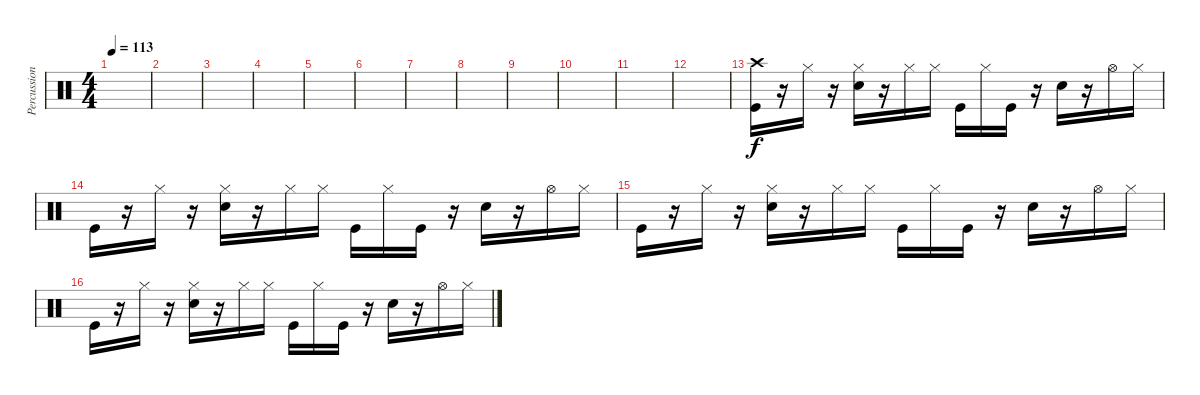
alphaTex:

\track ("Percussioni" "Percussion") {instrument percussion}
\staff {score}
\articulation defaults
\ts (4 4)
\tempo 113
\clef neutral
\ks c
|
|
|
|
|
|
|
|
|
|
|
|
("Crash high (hit)" "Kick (hit)").16 r.16 "Hi-Hat (closed)".16 r.16 ("Hi-Hat (closed)" "Electric Snare (hit)").16 r.16 "Hi-Hat (closed)".16 "Hi-Hat (closed)".16 "Kick (hit)".16 "Hi-Hat (closed)".16 "Kick (hit)".16 r.16 "Electric Snare (hit)".16 r.16 "Hi-Hat (open)".16 "Hi-Hat (closed)".16 |
"Kick (hit)".16 r.16 "Hi-Hat (closed)".16 r.16 ("Hi-Hat (closed)" "Electric Snare (hit)").16 r.16 "Hi-Hat (closed)".16 "Hi-Hat (closed)".16 "Kick (hit)".16 "Hi-Hat (closed)".16 "Kick (hit)".16 r.16 "Electric Snare (hit)".16 r.16 "Hi-Hat (open)".16 "Hi-Hat (closed)".16 |
"Kick (hit)".16 r.16 "Hi-Hat (closed)".16 r.16 ("Hi-Hat (closed)" "Electric Snare (hit)").16 r.16 "Hi-Hat (closed)".16 "Hi-Hat (closed)".16 "Kick (hit)".16 "Hi-Hat (closed)".16 "Kick (hit)".16 r.16 "Electric Snare (hit)".16 r.16 "Hi-Hat (open)".16 "Hi-Hat (closed)".16 |
"Kick (hit)".16 r.16 "Hi-Hat (closed)".16 r.16 ("Hi-Hat (closed)" "Electric Snare (hit)").16 r.16 "Hi-Hat (closed)".16 "Hi-Hat (closed)".16 "Kick (hit)".16 "Hi-Hat (closed)".16 "Kick (hit)".16 r.16 "Electric Snare (hit)".16 r.16 "Hi-Hat (open)".16 "Hi-Hat (closed)".16
